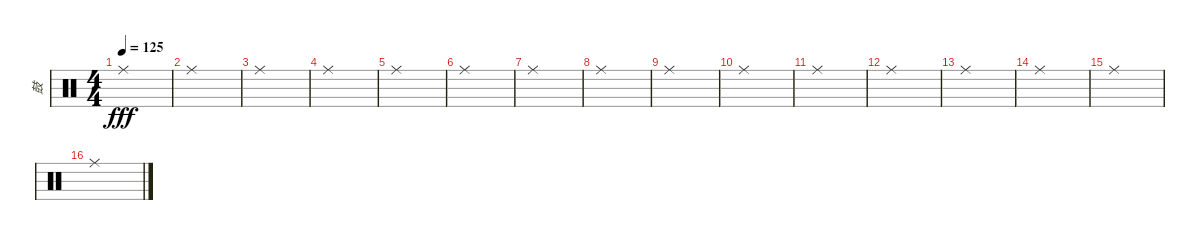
\track ("鼓" "鼓") {instrument percussion}
\staff {score}
\articulation defaults
\ts (4 4)
\tempo 125
\clef neutral
\ks c "Ride (middle)".1{dy fff}
|
"Ride (middle)".1 |
"Ride (middle)".1 |
"Ride (middle)".1 |
"Ride (middle)".1 |
"Ride (middle)".1 |
"Ride (middle)".1 |
"Ride (middle)".1 |
"Ride (middle)".1 |
"Ride (middle)".1 |
"Ride (middle)".1 |
"Ride (middle)".1 |
"Ride (middle)".1 |
"Ride (middle)".1 |
"Ride (middle)".1 |
"Ride (middle)".1
